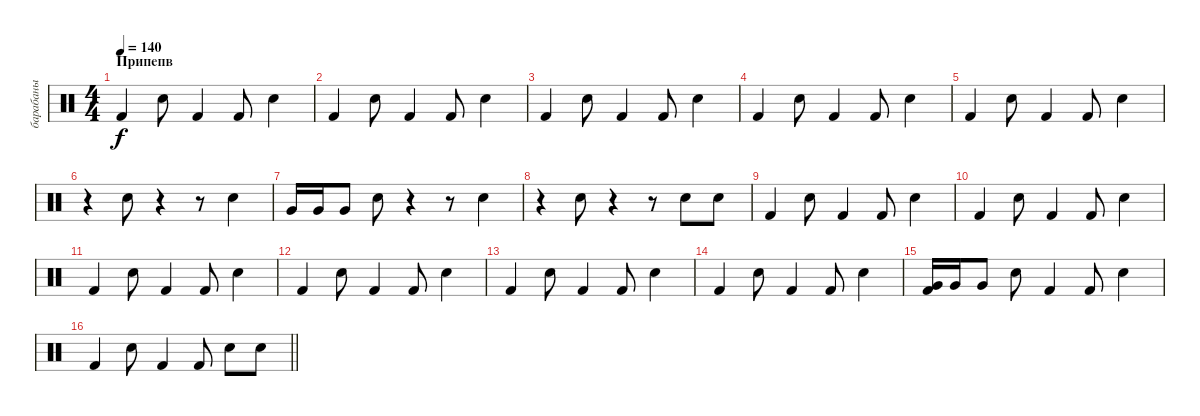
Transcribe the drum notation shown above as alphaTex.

\track ("барабаны" "барабаны") {instrument percussion}
\staff {score}
\articulation defaults
\ts (4 4)
\section ("" "Припепв")
\tempo 140
\clef neutral
\ks c "Kick (hit) 2".4{dy f} "Electric Snare (hit)".8 "Kick (hit) 2".4 "Kick (hit) 2".8 "Electric Snare (hit)".4
|
"Kick (hit) 2".4 "Electric Snare (hit)".8 "Kick (hit) 2".4 "Kick (hit) 2".8 "Electric Snare (hit)".4 |
"Kick (hit) 2".4 "Electric Snare (hit)".8 "Kick (hit) 2".4 "Kick (hit) 2".8 "Electric Snare (hit)".4 |
"Kick (hit) 2".4 "Electric Snare (hit)".8 "Kick (hit) 2".4 "Kick (hit) 2".8 "Electric Snare (hit)".4 |
"Kick (hit) 2".4 "Electric Snare (hit)".8 "Kick (hit) 2".4 "Kick (hit) 2".8 "Electric Snare (hit)".4 |
r.4 "Electric Snare (hit)".8 r.4 r.8 "Electric Snare (hit)".4 |
"Very Low Tom (hit)".16 "Very Low Tom (hit)".16 "Very Low Tom (hit)".8 "Electric Snare (hit)".8 r.4 r.8 "Electric Snare (hit)".4 |
r.4 "Electric Snare (hit)".8 r.4 r.8 "Electric Snare (hit)".8 "Electric Snare (hit)".8 |
"Kick (hit) 2".4 "Electric Snare (hit)".8 "Kick (hit) 2".4 "Kick (hit) 2".8 "Electric Snare (hit)".4 |
"Kick (hit) 2".4 "Electric Snare (hit)".8 "Kick (hit) 2".4 "Kick (hit) 2".8 "Electric Snare (hit)".4 |
"Kick (hit) 2".4 "Electric Snare (hit)".8 "Kick (hit) 2".4 "Kick (hit) 2".8 "Electric Snare (hit)".4 |
"Kick (hit) 2".4 "Electric Snare (hit)".8 "Kick (hit) 2".4 "Kick (hit) 2".8 "Electric Snare (hit)".4 |
"Kick (hit) 2".4 "Electric Snare (hit)".8 "Kick (hit) 2".4 "Kick (hit) 2".8 "Electric Snare (hit)".4 |
"Kick (hit) 2".4 "Electric Snare (hit)".8 "Kick (hit) 2".4 "Kick (hit) 2".8 "Electric Snare (hit)".4 |
("Kick (hit) 2" "Very Low Tom (hit)").16 "Very Low Tom (hit)".16 "Very Low Tom (hit)".8 "Electric Snare (hit)".8 "Kick (hit) 2".4 "Kick (hit) 2".8 "Electric Snare (hit)".4 |
\barLineRight lightlight "Kick (hit) 2".4 "Electric Snare (hit)".8 "Kick (hit) 2".4 "Kick (hit) 2".8 "Electric Snare (hit)".8 "Electric Snare (hit)".8
